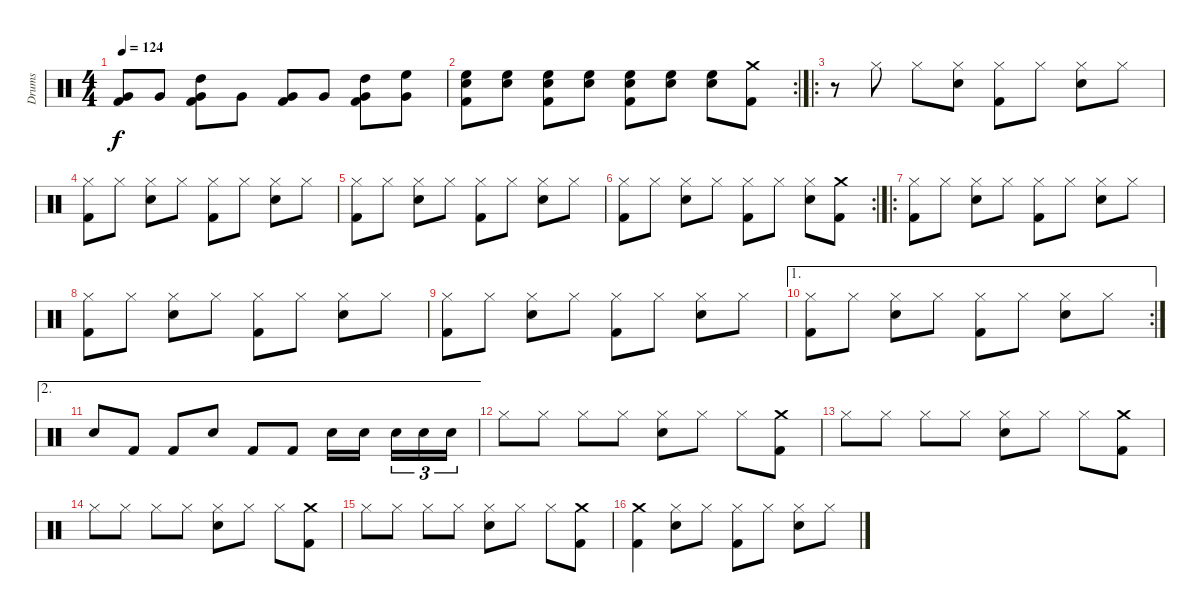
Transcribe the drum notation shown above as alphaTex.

\track ("Drums" "Drums") {instrument percussion}
\staff {score}
\articulation defaults
\ts (4 4)
\tempo 124
\clef neutral
\ks c
("Very Low Tom (hit)" "Kick (hit) 2").8{dy f} "Very Low Tom (hit)".8 ("High Tom (hit)" "Very Low Tom (hit)" "Kick (hit) 2").8 "Very Low Tom (hit)".8 ("Very Low Tom (hit)" "Kick (hit) 2").8 "Very Low Tom (hit)".8 ("High Tom (hit)" "Very Low Tom (hit)" "Kick (hit) 2").8 ("High Floor Tom (hit)" "Very Low Tom (hit)").8 |
\rc 2
("High Floor Tom (hit)" "Snare (hit) 2" "Kick (hit) 2").8 ("High Floor Tom (hit)" "Snare (hit) 2").8 ("High Floor Tom (hit)" "Snare (hit) 2" "Kick (hit) 2").8 ("High Floor Tom (hit)" "Snare (hit) 2").8 ("High Floor Tom (hit)" "Snare (hit) 2" "Kick (hit) 2").8 ("High Floor Tom (hit)" "Snare (hit) 2").8 ("High Floor Tom (hit)" "Snare (hit) 2").8 ("Kick (hit) 2" "Crash medium (hit)").8 |
\ro
r.8 "Hi-Hat (closed)".8 "Hi-Hat (closed)".8 ("Snare (hit) 2" "Hi-Hat (closed)").8 ("Kick (hit) 2" "Hi-Hat (closed)").8 "Hi-Hat (closed)".8 ("Snare (hit) 2" "Hi-Hat (closed)").8 "Hi-Hat (closed)".8 |
("Kick (hit) 2" "Hi-Hat (closed)").8 "Hi-Hat (closed)".8 ("Snare (hit) 2" "Hi-Hat (closed)").8 "Hi-Hat (closed)".8 ("Kick (hit) 2" "Hi-Hat (closed)").8 "Hi-Hat (closed)".8 ("Snare (hit) 2" "Hi-Hat (closed)").8 "Hi-Hat (closed)".8 |
("Kick (hit) 2" "Hi-Hat (closed)").8 "Hi-Hat (closed)".8 ("Snare (hit) 2" "Hi-Hat (closed)").8 "Hi-Hat (closed)".8 ("Kick (hit) 2" "Hi-Hat (closed)").8 "Hi-Hat (closed)".8 ("Snare (hit) 2" "Hi-Hat (closed)").8 "Hi-Hat (closed)".8 |
\rc 2
("Kick (hit) 2" "Hi-Hat (closed)").8 "Hi-Hat (closed)".8 ("Snare (hit) 2" "Hi-Hat (closed)").8 "Hi-Hat (closed)".8 ("Kick (hit) 2" "Hi-Hat (closed)").8 "Hi-Hat (closed)".8 ("Snare (hit) 2" "Hi-Hat (closed)").8 ("Crash medium (hit)" "Kick (hit) 2").8 |
\ro
("Kick (hit) 2" "Hi-Hat (closed)").8 "Hi-Hat (closed)".8 ("Snare (hit) 2" "Hi-Hat (closed)").8 "Hi-Hat (closed)".8 ("Kick (hit) 2" "Hi-Hat (closed)").8 "Hi-Hat (closed)".8 ("Snare (hit) 2" "Hi-Hat (closed)").8 "Hi-Hat (closed)".8 |
("Kick (hit) 2" "Hi-Hat (closed)").8 "Hi-Hat (closed)".8 ("Snare (hit) 2" "Hi-Hat (closed)").8 "Hi-Hat (closed)".8 ("Kick (hit) 2" "Hi-Hat (closed)").8 "Hi-Hat (closed)".8 ("Snare (hit) 2" "Hi-Hat (closed)").8 "Hi-Hat (closed)".8 |
("Kick (hit) 2" "Hi-Hat (closed)").8 "Hi-Hat (closed)".8 ("Snare (hit) 2" "Hi-Hat (closed)").8 "Hi-Hat (closed)".8 ("Kick (hit) 2" "Hi-Hat (closed)").8 "Hi-Hat (closed)".8 ("Snare (hit) 2" "Hi-Hat (closed)").8 "Hi-Hat (closed)".8 |
\ae 1
\rc 2
("Kick (hit) 2" "Hi-Hat (closed)").8 "Hi-Hat (closed)".8 ("Snare (hit) 2" "Hi-Hat (closed)").8 "Hi-Hat (closed)".8 ("Kick (hit) 2" "Hi-Hat (closed)").8 "Hi-Hat (closed)".8 ("Snare (hit) 2" "Hi-Hat (closed)").8 "Hi-Hat (closed)".8 |
\ae 2 "Snare (hit) 2".8 "Kick (hit) 2".8 "Kick (hit) 2".8 "Snare (hit) 2".8 "Kick (hit) 2".8 "Kick (hit) 2".8 "Snare (hit) 2".16 "Snare (hit) 2".16 "Snare (hit) 2".16{tu (3 2)} "Snare (hit) 2".16{tu (3 2)} "Snare (hit) 2".16{tu (3 2)}
|
"Hi-Hat (closed)".8 "Hi-Hat (closed)".8 "Hi-Hat (closed)".8 "Hi-Hat (closed)".8 ("Snare (hit) 2" "Hi-Hat (closed)").8 "Hi-Hat (closed)".8 "Hi-Hat (closed)".8 ("Crash medium (hit)" "Kick (hit) 2").8 |
"Hi-Hat (closed)".8 "Hi-Hat (closed)".8 "Hi-Hat (closed)".8 "Hi-Hat (closed)".8 ("Snare (hit) 2" "Hi-Hat (closed)").8 "Hi-Hat (closed)".8 "Hi-Hat (closed)".8 ("Crash medium (hit)" "Kick (hit) 2").8 |
"Hi-Hat (closed)".8 "Hi-Hat (closed)".8 "Hi-Hat (closed)".8 "Hi-Hat (closed)".8 ("Snare (hit) 2" "Hi-Hat (closed)").8 "Hi-Hat (closed)".8 "Hi-Hat (closed)".8 ("Crash medium (hit)" "Kick (hit) 2").8 |
"Hi-Hat (closed)".8 "Hi-Hat (closed)".8 "Hi-Hat (closed)".8 "Hi-Hat (closed)".8 ("Snare (hit) 2" "Hi-Hat (closed)").8 "Hi-Hat (closed)".8 "Hi-Hat (closed)".8 ("Crash medium (hit)" "Kick (hit) 2").8 |
("Kick (hit) 2" "Crash medium (hit)").4 ("Snare (hit) 2" "Hi-Hat (closed)").8 "Hi-Hat (closed)".8 ("Hi-Hat (closed)" "Kick (hit) 2").8 "Hi-Hat (closed)".8 ("Snare (hit) 2" "Hi-Hat (closed)").8 "Hi-Hat (closed)".8
